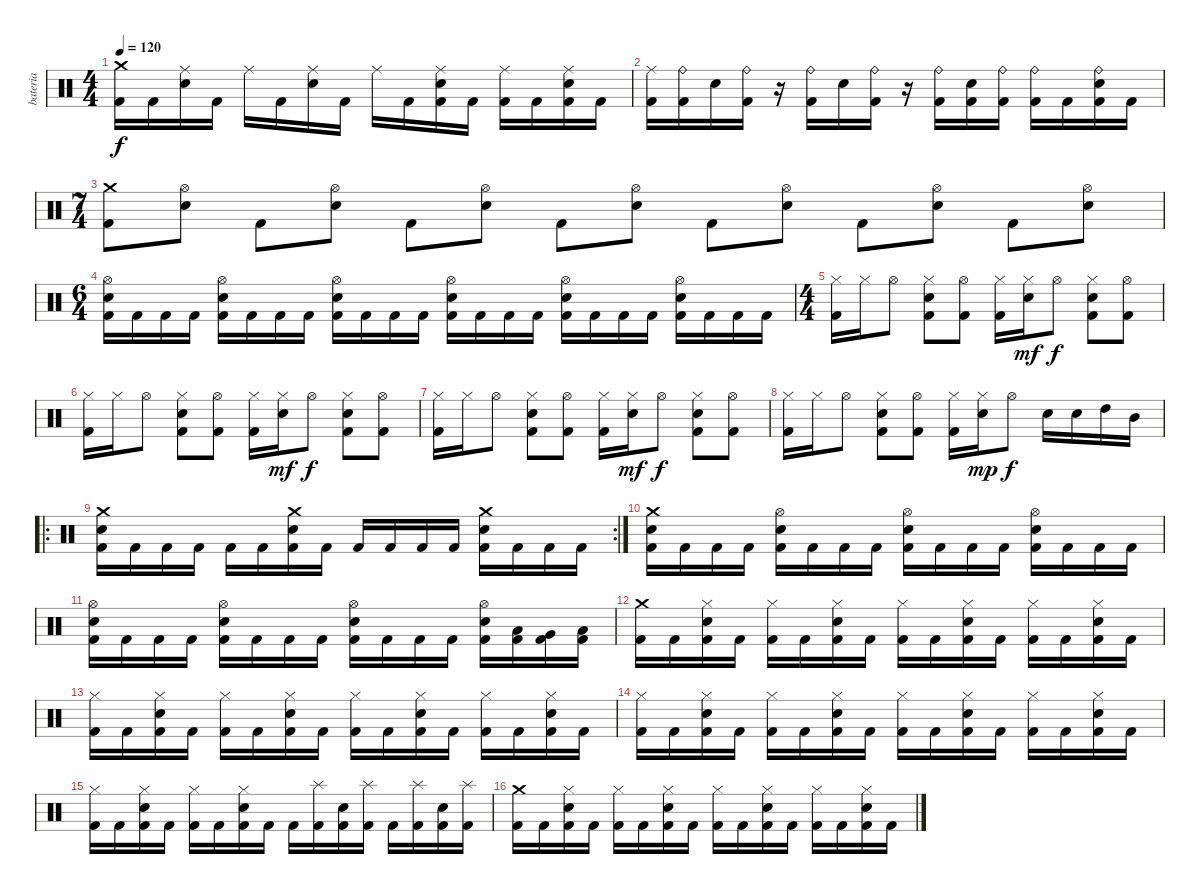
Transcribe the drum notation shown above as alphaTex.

\track ("bateria" "bateria") {instrument percussion}
\staff {score}
\articulation defaults
\ts (4 4)
\tempo 120
\clef neutral
\ks c
("Crash medium (hit)" "Kick (hit) 2").16{dy f} "Kick (hit) 2".16 ("Ride (middle)" "Electric Snare (hit)").16 "Kick (hit) 2".16 "Ride (middle)".16 "Kick (hit) 2".16 ("Ride (middle)" "Electric Snare (hit)").16 "Kick (hit) 2".16 "Ride (middle)".16 "Kick (hit) 2".16 ("Ride (middle)" "Electric Snare (hit)" "Kick (hit) 2").16 "Kick (hit) 2".16 ("Ride (middle)" "Kick (hit) 2").16 "Kick (hit) 2".16 ("Ride (middle)" "Electric Snare (hit)" "Kick (hit) 2").16 "Kick (hit) 2".16 |
("Ride (middle)" "Kick (hit) 2").16 ("Ride (bell)" "Kick (hit) 2").16 "Electric Snare (hit)".16 ("Ride (bell)" "Kick (hit) 2").16 r.16 ("Ride (bell)" "Kick (hit) 2").16 "Electric Snare (hit)".16 ("Ride (bell)" "Kick (hit) 2").16 r.16 ("Ride (bell)" "Kick (hit) 2").16 ("Electric Snare (hit)" "Kick (hit) 2").16 ("Ride (bell)" "Kick (hit) 2").16 ("Ride (bell)" "Kick (hit) 2").16 "Kick (hit) 2".16 ("Ride (bell)" "Electric Snare (hit)" "Kick (hit) 2").16 "Kick (hit) 2".16 |
\ts (7 4)
("Crash medium (hit)" "Kick (hit) 2").8 ("Hi-Hat (open)" "Electric Snare (hit)").8 "Kick (hit) 2".8 ("Hi-Hat (open)" "Electric Snare (hit)").8 "Kick (hit) 2".8 ("Hi-Hat (open)" "Electric Snare (hit)").8 "Kick (hit) 2".8 ("Hi-Hat (open)" "Electric Snare (hit)").8 "Kick (hit) 2".8 ("Hi-Hat (open)" "Electric Snare (hit)").8 "Kick (hit) 2".8 ("Hi-Hat (open)" "Electric Snare (hit)").8 "Kick (hit) 2".8 ("Hi-Hat (open)" "Electric Snare (hit)").8 |
\ts (6 4)
("Hi-Hat (open)" "Electric Snare (hit)" "Kick (hit) 2").16 "Kick (hit) 2".16 "Kick (hit) 2".16 "Kick (hit) 2".16 ("Hi-Hat (open)" "Electric Snare (hit)" "Kick (hit) 2").16 "Kick (hit) 2".16 "Kick (hit) 2".16 "Kick (hit) 2".16 ("Hi-Hat (open)" "Electric Snare (hit)" "Kick (hit) 2").16 "Kick (hit) 2".16 "Kick (hit) 2".16 "Kick (hit) 2".16 ("Hi-Hat (open)" "Electric Snare (hit)" "Kick (hit) 2").16 "Kick (hit) 2".16 "Kick (hit) 2".16 "Kick (hit) 2".16 ("Hi-Hat (open)" "Electric Snare (hit)" "Kick (hit) 2").16 "Kick (hit) 2".16 "Kick (hit) 2".16 "Kick (hit) 2".16 ("Hi-Hat (open)" "Electric Snare (hit)" "Kick (hit) 2").16 "Kick (hit) 2".16 "Kick (hit) 2".16 "Kick (hit) 2".16 |
\ts (4 4)
("Hi-Hat (closed)" "Kick (hit) 2").16 "Hi-Hat (closed)".16 "Hi-Hat (open)".8 ("Hi-Hat (closed)" "Electric Snare (hit)" "Kick (hit) 2").8 ("Hi-Hat (open)" "Kick (hit) 2").8 ("Hi-Hat (closed)" "Kick (hit) 2").16 ("Hi-Hat (closed)" "Electric Snare (hit)").16{dy mf} "Hi-Hat (open)".8{dy f} ("Hi-Hat (closed)" "Electric Snare (hit)" "Kick (hit) 2").8 ("Hi-Hat (open)" "Kick (hit) 2").8 |
("Hi-Hat (closed)" "Kick (hit) 2").16 "Hi-Hat (closed)".16 "Hi-Hat (open)".8 ("Hi-Hat (closed)" "Electric Snare (hit)" "Kick (hit) 2").8 ("Hi-Hat (open)" "Kick (hit) 2").8 ("Hi-Hat (closed)" "Kick (hit) 2").16 ("Hi-Hat (closed)" "Electric Snare (hit)").16{dy mf} "Hi-Hat (open)".8{dy f} ("Hi-Hat (closed)" "Electric Snare (hit)" "Kick (hit) 2").8 ("Hi-Hat (open)" "Kick (hit) 2").8 |
("Hi-Hat (closed)" "Kick (hit) 2").16 "Hi-Hat (closed)".16 "Hi-Hat (open)".8 ("Hi-Hat (closed)" "Electric Snare (hit)" "Kick (hit) 2").8 ("Hi-Hat (open)" "Kick (hit) 2").8 ("Hi-Hat (closed)" "Kick (hit) 2").16 ("Hi-Hat (closed)" "Electric Snare (hit)").16{dy mf} "Hi-Hat (open)".8{dy f} ("Hi-Hat (closed)" "Electric Snare (hit)" "Kick (hit) 2").8 ("Hi-Hat (open)" "Kick (hit) 2").8 |
("Hi-Hat (closed)" "Kick (hit) 2").16 "Hi-Hat (closed)".16 "Hi-Hat (open)".8 ("Hi-Hat (closed)" "Electric Snare (hit)" "Kick (hit) 2").8 ("Hi-Hat (open)" "Kick (hit) 2").8 ("Hi-Hat (closed)" "Kick (hit) 2").16 ("Hi-Hat (closed)" "Electric Snare (hit)").16{dy mp} "Hi-Hat (open)".8{dy f} "Electric Snare (hit)".16 "Electric Snare (hit)".16 "High Tom (hit)".16 "Mid Tom (hit)".16 |
\ro
\rc 2
("Crash medium (hit)" "Electric Snare (hit)" "Kick (hit) 2").16 "Kick (hit) 2".16 "Kick (hit) 2".16 "Kick (hit) 2".16 "Kick (hit) 2".16 "Kick (hit) 2".16 ("Crash medium (hit)" "Electric Snare (hit)" "Kick (hit) 2").16 "Kick (hit) 2".16 "Kick (hit) 2".16 "Kick (hit) 2".16 "Kick (hit) 2".16 "Kick (hit) 2".16 ("Crash medium (hit)" "Electric Snare (hit)" "Kick (hit) 2").16 "Kick (hit) 2".16 "Kick (hit) 2".16 "Kick (hit) 2".16 |
("Crash medium (hit)" "Electric Snare (hit)" "Kick (hit) 2").16 "Kick (hit) 2".16 "Kick (hit) 2".16 "Kick (hit) 2".16 ("Hi-Hat (open)" "Electric Snare (hit)" "Kick (hit) 2").16 "Kick (hit) 2".16 "Kick (hit) 2".16 "Kick (hit) 2".16 ("Hi-Hat (open)" "Electric Snare (hit)" "Kick (hit) 2").16 "Kick (hit) 2".16 "Kick (hit) 2".16 "Kick (hit) 2".16 ("Hi-Hat (open)" "Electric Snare (hit)" "Kick (hit) 2").16 "Kick (hit) 2".16 "Kick (hit) 2".16 "Kick (hit) 2".16 |
("Hi-Hat (open)" "Electric Snare (hit)" "Kick (hit) 2").16 "Kick (hit) 2".16 "Kick (hit) 2".16 "Kick (hit) 2".16 ("Hi-Hat (open)" "Electric Snare (hit)" "Kick (hit) 2").16 "Kick (hit) 2".16 "Kick (hit) 2".16 "Kick (hit) 2".16 ("Hi-Hat (open)" "Electric Snare (hit)" "Kick (hit) 2").16 "Kick (hit) 2".16 "Kick (hit) 2".16 "Kick (hit) 2".16 ("Hi-Hat (open)" "Electric Snare (hit)" "Kick (hit) 2").16 ("Low Tom (hit)" "Kick (hit) 2").16 ("Very Low Tom (hit)" "Kick (hit) 2").16 ("Low Floor Tom (hit)" "Kick (hit) 2").16 |
("Crash medium (hit)" "Kick (hit) 2").16 "Kick (hit) 2".16 ("Hi-Hat (closed)" "Electric Snare (hit)" "Kick (hit) 2").16 "Kick (hit) 2".16 ("Hi-Hat (closed)" "Kick (hit) 2").16 "Kick (hit) 2".16 ("Hi-Hat (closed)" "Electric Snare (hit)" "Kick (hit) 2").16 "Kick (hit) 2".16 ("Hi-Hat (closed)" "Kick (hit) 2").16 "Kick (hit) 2".16 ("Hi-Hat (closed)" "Electric Snare (hit)" "Kick (hit) 2").16 "Kick (hit) 2".16 ("Hi-Hat (closed)" "Kick (hit) 2").16 "Kick (hit) 2".16 ("Hi-Hat (closed)" "Electric Snare (hit)" "Kick (hit) 2").16 "Kick (hit) 2".16 |
("Hi-Hat (closed)" "Kick (hit) 2").16 "Kick (hit) 2".16 ("Hi-Hat (closed)" "Electric Snare (hit)" "Kick (hit) 2").16 "Kick (hit) 2".16 ("Hi-Hat (closed)" "Kick (hit) 2").16 "Kick (hit) 2".16 ("Hi-Hat (closed)" "Electric Snare (hit)" "Kick (hit) 2").16 "Kick (hit) 2".16 ("Hi-Hat (closed)" "Kick (hit) 2").16 "Kick (hit) 2".16 ("Hi-Hat (closed)" "Electric Snare (hit)" "Kick (hit) 2").16 "Kick (hit) 2".16 ("Hi-Hat (closed)" "Kick (hit) 2").16 "Kick (hit) 2".16 ("Hi-Hat (closed)" "Electric Snare (hit)" "Kick (hit) 2").16 "Kick (hit) 2".16 |
("Hi-Hat (closed)" "Kick (hit) 2").16 "Kick (hit) 2".16 ("Hi-Hat (closed)" "Electric Snare (hit)" "Kick (hit) 2").16 "Kick (hit) 2".16 ("Hi-Hat (closed)" "Kick (hit) 2").16 "Kick (hit) 2".16 ("Hi-Hat (closed)" "Electric Snare (hit)" "Kick (hit) 2").16 "Kick (hit) 2".16 ("Hi-Hat (closed)" "Kick (hit) 2").16 "Kick (hit) 2".16 ("Hi-Hat (closed)" "Electric Snare (hit)" "Kick (hit) 2").16 "Kick (hit) 2".16 ("Hi-Hat (closed)" "Kick (hit) 2").16 "Kick (hit) 2".16 ("Hi-Hat (closed)" "Electric Snare (hit)" "Kick (hit) 2").16 "Kick (hit) 2".16 |
("Hi-Hat (closed)" "Kick (hit) 2").16 "Kick (hit) 2".16 ("Hi-Hat (closed)" "Electric Snare (hit)" "Kick (hit) 2").16 "Kick (hit) 2".16 ("Hi-Hat (closed)" "Kick (hit) 2").16 "Kick (hit) 2".16 ("Hi-Hat (closed)" "Electric Snare (hit)" "Kick (hit) 2").16 "Kick (hit) 2".16 "Kick (hit) 2".16 ("Splash (hit)" "Kick (hit) 2").16 ("Electric Snare (hit)" "Kick (hit) 2").16 ("Splash (hit)" "Kick (hit) 2").16 "Kick (hit) 2".16 ("Splash (hit)" "Kick (hit) 2").16 ("Electric Snare (hit)" "Kick (hit) 2").16 ("Splash (hit)" "Kick (hit) 2").16 |
("Crash medium (hit)" "Kick (hit) 2").16 "Kick (hit) 2".16 ("Hi-Hat (closed)" "Electric Snare (hit)" "Kick (hit) 2").16 "Kick (hit) 2".16 ("Hi-Hat (closed)" "Kick (hit) 2").16 "Kick (hit) 2".16 ("Hi-Hat (closed)" "Electric Snare (hit)" "Kick (hit) 2").16 "Kick (hit) 2".16 ("Hi-Hat (closed)" "Kick (hit) 2").16 "Kick (hit) 2".16 ("Hi-Hat (closed)" "Electric Snare (hit)" "Kick (hit) 2").16 "Kick (hit) 2".16 ("Hi-Hat (closed)" "Kick (hit) 2").16 "Kick (hit) 2".16 ("Hi-Hat (closed)" "Electric Snare (hit)" "Kick (hit) 2").16 "Kick (hit) 2".16
